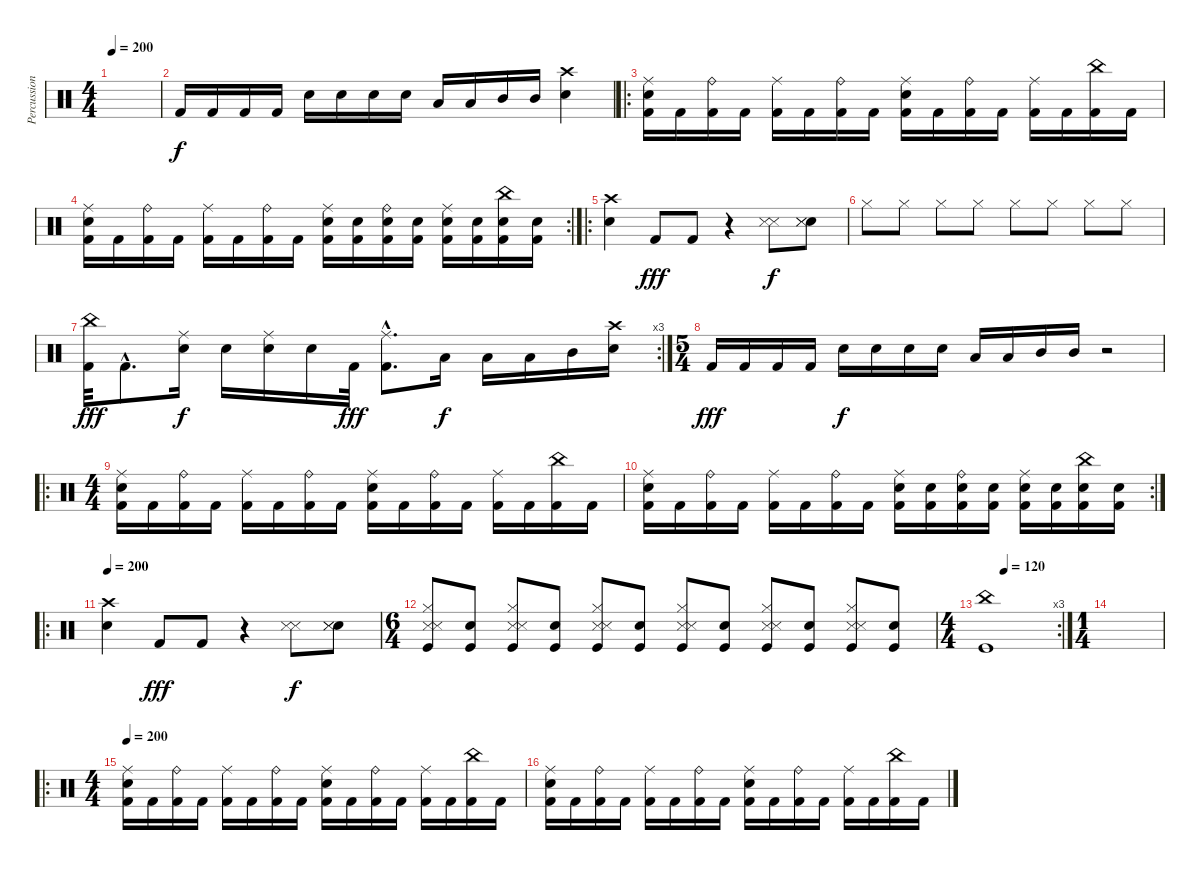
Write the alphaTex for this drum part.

\track ("Percussion" "Percussion") {instrument percussion}
\staff {score}
\articulation defaults
\ts (4 4)
\tempo 200
\clef neutral
\ks c
|
"Kick (hit) 2".16 "Kick (hit) 2".16 "Kick (hit) 2".16 "Kick (hit) 2".16 "Electric Snare (hit)".16{dy f} "Electric Snare (hit)".16 "Electric Snare (hit)".16 "Electric Snare (hit)".16 "Low Tom (hit)".16 "Low Tom (hit)".16 "Mid Tom (hit)".16 "Mid Tom (hit)".16 ("Crash high (hit)" "Electric Snare (hit)").4 |
\ro
("Ride (middle)" "Electric Snare (hit)" "Kick (hit) 2").16 "Kick (hit) 2".16 ("Ride (bell)" "Kick (hit) 2").16 "Kick (hit) 2".16 ("Ride (middle)" "Kick (hit) 2").16 "Kick (hit) 2".16 ("Ride (bell)" "Kick (hit) 2").16 "Kick (hit) 2".16 ("Ride (middle)" "Electric Snare (hit)" "Kick (hit) 2").16 "Kick (hit) 2".16 ("Ride (bell)" "Kick (hit) 2").16 "Kick (hit) 2".16 ("Ride (middle)" "Kick (hit) 2").16 "Kick (hit) 2".16 ("China (hit)" "Kick (hit) 2").16 "Kick (hit) 2".16 |
\rc 2
("Ride (middle)" "Electric Snare (hit)" "Kick (hit) 2").16 "Kick (hit) 2".16 ("Ride (bell)" "Kick (hit) 2").16 "Kick (hit) 2".16 ("Ride (middle)" "Kick (hit) 2").16 "Kick (hit) 2".16 ("Ride (bell)" "Kick (hit) 2").16 "Kick (hit) 2".16 ("Ride (middle)" "Electric Snare (hit)" "Kick (hit) 2").16 ("Electric Snare (hit)" "Kick (hit) 2").16 ("Ride (bell)" "Electric Snare (hit)" "Kick (hit) 2").16 ("Electric Snare (hit)" "Kick (hit) 2").16 ("Ride (middle)" "Electric Snare (hit)" "Kick (hit) 2").16 ("Electric Snare (hit)" "Kick (hit) 2").16 ("China (hit)" "Electric Snare (hit)" "Kick (hit) 2").16 ("Electric Snare (hit)" "Kick (hit) 2").16 |
\ro
("Crash high (hit)" "Electric Snare (hit)").4 "Kick (hit) 2".8{dy fff} "Kick (hit) 2".8 r.4 ("Snare (side stick) 3" "Metronome (hit)").8{dy f} ("Metronome (bell)" "Snare (side stick) 3" "Metronome (hit)").8 |
"Hi-Hat (closed)".8 "Hi-Hat (closed)".8 "Hi-Hat (closed)".8 "Hi-Hat (closed)".8 "Hi-Hat (closed)".8 "Hi-Hat (closed)".8 "Hi-Hat (closed)".8 "Hi-Hat (closed)".8 |
\rc 3
("China (hit)" "Kick (hit) 2").32{dy fff} "Kick (hit) 2"{hac}.8{d} ("Ride (middle)" "Electric Snare (hit)").16{dy f} "Electric Snare (hit)".16 ("Ride (middle)" "Electric Snare (hit)").16 "Electric Snare (hit)".16 "Kick (hit) 2".32{dy fff} ("Ride (middle)"{hac} "Kick (hit) 2"{hac}).8{d} "Low Tom (hit)".16{dy f} "Low Tom (hit)".16 "Low Tom (hit)".16 "Mid Tom (hit)".16 ("Crash high (hit)" "Electric Snare (hit)").16 |
\ts (5 4)
"Kick (hit) 2".16{dy fff} "Kick (hit) 2".16 "Kick (hit) 2".16 "Kick (hit) 2".16 "Electric Snare (hit)".16{dy f} "Electric Snare (hit)".16 "Electric Snare (hit)".16 "Electric Snare (hit)".16 "Low Tom (hit)".16 "Low Tom (hit)".16 "Mid Tom (hit)".16 "Mid Tom (hit)".16 r.2 |
\ro
\ts (4 4)
("Ride (middle)" "Electric Snare (hit)" "Kick (hit) 2").16 "Kick (hit) 2".16 ("Ride (bell)" "Kick (hit) 2").16 "Kick (hit) 2".16 ("Ride (middle)" "Kick (hit) 2").16 "Kick (hit) 2".16 ("Ride (bell)" "Kick (hit) 2").16 "Kick (hit) 2".16 ("Ride (middle)" "Electric Snare (hit)" "Kick (hit) 2").16 "Kick (hit) 2".16 ("Ride (bell)" "Kick (hit) 2").16 "Kick (hit) 2".16 ("Ride (middle)" "Kick (hit) 2").16 "Kick (hit) 2".16 ("China (hit)" "Kick (hit) 2").16 "Kick (hit) 2".16 |
\rc 2
("Ride (middle)" "Electric Snare (hit)" "Kick (hit) 2").16 "Kick (hit) 2".16 ("Ride (bell)" "Kick (hit) 2").16 "Kick (hit) 2".16 ("Ride (middle)" "Kick (hit) 2").16 "Kick (hit) 2".16 ("Ride (bell)" "Kick (hit) 2").16 "Kick (hit) 2".16 ("Ride (middle)" "Electric Snare (hit)" "Kick (hit) 2").16 ("Electric Snare (hit)" "Kick (hit) 2").16 ("Ride (bell)" "Electric Snare (hit)" "Kick (hit) 2").16 ("Electric Snare (hit)" "Kick (hit) 2").16 ("Ride (middle)" "Electric Snare (hit)" "Kick (hit) 2").16 ("Electric Snare (hit)" "Kick (hit) 2").16 ("China (hit)" "Electric Snare (hit)" "Kick (hit) 2").16 ("Electric Snare (hit)" "Kick (hit) 2").16 |
\ro
\tempo 200
("Crash high (hit)" "Electric Snare (hit)").4 "Kick (hit) 2".8{dy fff} "Kick (hit) 2".8 r.4 ("Snare (side stick) 3" "Metronome (hit)").8{dy f} ("Metronome (bell)" "Snare (side stick) 3" "Metronome (hit)").8 |
\ts (6 4)
("Hi-Hat (closed)" "Snare (side stick) 3" "Metronome (hit)" "Kick (hit)").8 ("Metronome (bell)" "Kick (hit)").8 ("Hi-Hat (closed)" "Snare (side stick) 3" "Metronome (hit)" "Kick (hit)").8 ("Metronome (bell)" "Kick (hit)").8 ("Hi-Hat (closed)" "Snare (side stick) 3" "Metronome (hit)" "Kick (hit)").8 ("Metronome (bell)" "Kick (hit)").8 ("Hi-Hat (closed)" "Snare (side stick) 3" "Metronome (hit)" "Kick (hit)").8 ("Metronome (bell)" "Kick (hit)").8 ("Hi-Hat (closed)" "Snare (side stick) 3" "Metronome (hit)" "Kick (hit)").8 ("Metronome (bell)" "Kick (hit)").8 ("Hi-Hat (closed)" "Snare (side stick) 3" "Metronome (hit)" "Kick (hit)").8 ("Metronome (bell)" "Kick (hit)").8 |
\rc 3
\ts (4 4)
\tempo (120 0.25)
("China (hit)" "Kick (hit)").1 |
\ts (1 4)
|
\ro
\ts (4 4)
\tempo 200
("Ride (middle)" "Electric Snare (hit)" "Kick (hit) 2").16 "Kick (hit) 2".16 ("Ride (bell)" "Kick (hit) 2").16 "Kick (hit) 2".16 ("Ride (middle)" "Kick (hit) 2").16 "Kick (hit) 2".16 ("Ride (bell)" "Kick (hit) 2").16 "Kick (hit) 2".16 ("Ride (middle)" "Electric Snare (hit)" "Kick (hit) 2").16 "Kick (hit) 2".16 ("Ride (bell)" "Kick (hit) 2").16 "Kick (hit) 2".16 ("Ride (middle)" "Kick (hit) 2").16 "Kick (hit) 2".16 ("China (hit)" "Kick (hit) 2").16 "Kick (hit) 2".16 |
("Ride (middle)" "Electric Snare (hit)" "Kick (hit) 2").16 "Kick (hit) 2".16 ("Ride (bell)" "Kick (hit) 2").16 "Kick (hit) 2".16 ("Ride (middle)" "Kick (hit) 2").16 "Kick (hit) 2".16 ("Ride (bell)" "Kick (hit) 2").16 "Kick (hit) 2".16 ("Ride (middle)" "Electric Snare (hit)" "Kick (hit) 2").16 "Kick (hit) 2".16 ("Ride (bell)" "Kick (hit) 2").16 "Kick (hit) 2".16 ("Ride (middle)" "Kick (hit) 2").16 "Kick (hit) 2".16 ("China (hit)" "Kick (hit) 2").16 "Kick (hit) 2".16
